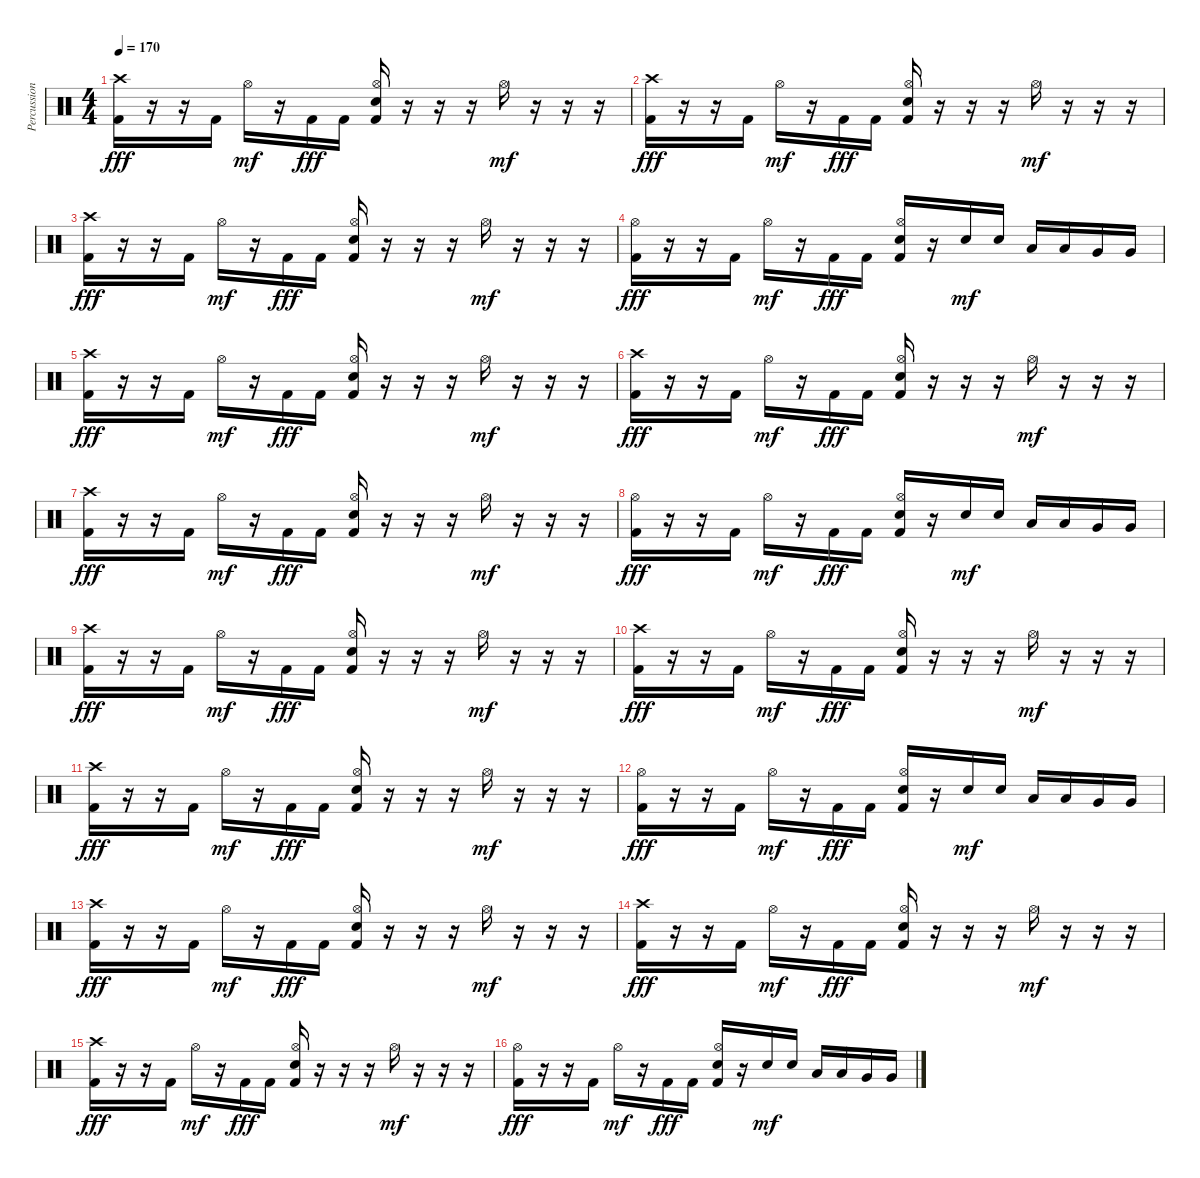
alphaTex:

\track ("Percussion" "Percussion") {instrument percussion}
\staff {score}
\articulation defaults
\ts (4 4)
\tempo 170
\clef neutral
\ks c
("Crash high (hit)" "Kick (hit) 2").16{dy fff} r.16 r.16 "Kick (hit) 2".16 "Hi-Hat (open)".16{dy mf} r.16 "Kick (hit) 2".16{dy fff} "Kick (hit) 2".16 ("Hi-Hat (open)" "Electric Snare (hit)" "Kick (hit) 2").16 r.16 r.16 r.16 "Hi-Hat (open)".16{dy mf} r.16 r.16 r.16 |
("Crash high (hit)" "Kick (hit) 2").16{dy fff} r.16 r.16 "Kick (hit) 2".16 "Hi-Hat (open)".16{dy mf} r.16 "Kick (hit) 2".16{dy fff} "Kick (hit) 2".16 ("Hi-Hat (open)" "Electric Snare (hit)" "Kick (hit) 2").16 r.16 r.16 r.16 "Hi-Hat (open)".16{dy mf} r.16 r.16 r.16 |
("Crash high (hit)" "Kick (hit) 2").16{dy fff} r.16 r.16 "Kick (hit) 2".16 "Hi-Hat (open)".16{dy mf} r.16 "Kick (hit) 2".16{dy fff} "Kick (hit) 2".16 ("Hi-Hat (open)" "Electric Snare (hit)" "Kick (hit) 2").16 r.16 r.16 r.16 "Hi-Hat (open)".16{dy mf} r.16 r.16 r.16 |
("Hi-Hat (open)" "Kick (hit) 2").16{dy fff} r.16 r.16 "Kick (hit) 2".16 "Hi-Hat (open)".16{dy mf} r.16 "Kick (hit) 2".16{dy fff} "Kick (hit) 2".16 ("Hi-Hat (open)" "Electric Snare (hit)" "Kick (hit) 2").16 r.16 "Electric Snare (hit)".16{dy mf} "Electric Snare (hit)".16 "Low Tom (hit)".16 "Low Tom (hit)".16 "Very Low Tom (hit)".16 "Very Low Tom (hit)".16 |
("Crash high (hit)" "Kick (hit) 2").16{dy fff} r.16 r.16 "Kick (hit) 2".16 "Hi-Hat (open)".16{dy mf} r.16 "Kick (hit) 2".16{dy fff} "Kick (hit) 2".16 ("Hi-Hat (open)" "Electric Snare (hit)" "Kick (hit) 2").16 r.16 r.16 r.16 "Hi-Hat (open)".16{dy mf} r.16 r.16 r.16 |
("Crash high (hit)" "Kick (hit) 2").16{dy fff} r.16 r.16 "Kick (hit) 2".16 "Hi-Hat (open)".16{dy mf} r.16 "Kick (hit) 2".16{dy fff} "Kick (hit) 2".16 ("Hi-Hat (open)" "Electric Snare (hit)" "Kick (hit) 2").16 r.16 r.16 r.16 "Hi-Hat (open)".16{dy mf} r.16 r.16 r.16 |
("Crash high (hit)" "Kick (hit) 2").16{dy fff} r.16 r.16 "Kick (hit) 2".16 "Hi-Hat (open)".16{dy mf} r.16 "Kick (hit) 2".16{dy fff} "Kick (hit) 2".16 ("Hi-Hat (open)" "Electric Snare (hit)" "Kick (hit) 2").16 r.16 r.16 r.16 "Hi-Hat (open)".16{dy mf} r.16 r.16 r.16 |
("Hi-Hat (open)" "Kick (hit) 2").16{dy fff} r.16 r.16 "Kick (hit) 2".16 "Hi-Hat (open)".16{dy mf} r.16 "Kick (hit) 2".16{dy fff} "Kick (hit) 2".16 ("Hi-Hat (open)" "Electric Snare (hit)" "Kick (hit) 2").16 r.16 "Electric Snare (hit)".16{dy mf} "Electric Snare (hit)".16 "Low Tom (hit)".16 "Low Tom (hit)".16 "Very Low Tom (hit)".16 "Very Low Tom (hit)".16 |
("Crash high (hit)" "Kick (hit) 2").16{dy fff} r.16 r.16 "Kick (hit) 2".16 "Hi-Hat (open)".16{dy mf} r.16 "Kick (hit) 2".16{dy fff} "Kick (hit) 2".16 ("Hi-Hat (open)" "Electric Snare (hit)" "Kick (hit) 2").16 r.16 r.16 r.16 "Hi-Hat (open)".16{dy mf} r.16 r.16 r.16 |
("Crash high (hit)" "Kick (hit) 2").16{dy fff} r.16 r.16 "Kick (hit) 2".16 "Hi-Hat (open)".16{dy mf} r.16 "Kick (hit) 2".16{dy fff} "Kick (hit) 2".16 ("Hi-Hat (open)" "Electric Snare (hit)" "Kick (hit) 2").16 r.16 r.16 r.16 "Hi-Hat (open)".16{dy mf} r.16 r.16 r.16 |
("Crash high (hit)" "Kick (hit) 2").16{dy fff} r.16 r.16 "Kick (hit) 2".16 "Hi-Hat (open)".16{dy mf} r.16 "Kick (hit) 2".16{dy fff} "Kick (hit) 2".16 ("Hi-Hat (open)" "Electric Snare (hit)" "Kick (hit) 2").16 r.16 r.16 r.16 "Hi-Hat (open)".16{dy mf} r.16 r.16 r.16 |
("Hi-Hat (open)" "Kick (hit) 2").16{dy fff} r.16 r.16 "Kick (hit) 2".16 "Hi-Hat (open)".16{dy mf} r.16 "Kick (hit) 2".16{dy fff} "Kick (hit) 2".16 ("Hi-Hat (open)" "Electric Snare (hit)" "Kick (hit) 2").16 r.16 "Electric Snare (hit)".16{dy mf} "Electric Snare (hit)".16 "Low Tom (hit)".16 "Low Tom (hit)".16 "Very Low Tom (hit)".16 "Very Low Tom (hit)".16 |
("Crash high (hit)" "Kick (hit) 2").16{dy fff} r.16 r.16 "Kick (hit) 2".16 "Hi-Hat (open)".16{dy mf} r.16 "Kick (hit) 2".16{dy fff} "Kick (hit) 2".16 ("Hi-Hat (open)" "Electric Snare (hit)" "Kick (hit) 2").16 r.16 r.16 r.16 "Hi-Hat (open)".16{dy mf} r.16 r.16 r.16 |
("Crash high (hit)" "Kick (hit) 2").16{dy fff} r.16 r.16 "Kick (hit) 2".16 "Hi-Hat (open)".16{dy mf} r.16 "Kick (hit) 2".16{dy fff} "Kick (hit) 2".16 ("Hi-Hat (open)" "Electric Snare (hit)" "Kick (hit) 2").16 r.16 r.16 r.16 "Hi-Hat (open)".16{dy mf} r.16 r.16 r.16 |
("Crash high (hit)" "Kick (hit) 2").16{dy fff} r.16 r.16 "Kick (hit) 2".16 "Hi-Hat (open)".16{dy mf} r.16 "Kick (hit) 2".16{dy fff} "Kick (hit) 2".16 ("Hi-Hat (open)" "Electric Snare (hit)" "Kick (hit) 2").16 r.16 r.16 r.16 "Hi-Hat (open)".16{dy mf} r.16 r.16 r.16 |
("Hi-Hat (open)" "Kick (hit) 2").16{dy fff} r.16 r.16 "Kick (hit) 2".16 "Hi-Hat (open)".16{dy mf} r.16 "Kick (hit) 2".16{dy fff} "Kick (hit) 2".16 ("Hi-Hat (open)" "Electric Snare (hit)" "Kick (hit) 2").16 r.16 "Electric Snare (hit)".16{dy mf} "Electric Snare (hit)".16 "Low Tom (hit)".16 "Low Tom (hit)".16 "Very Low Tom (hit)".16 "Very Low Tom (hit)".16
